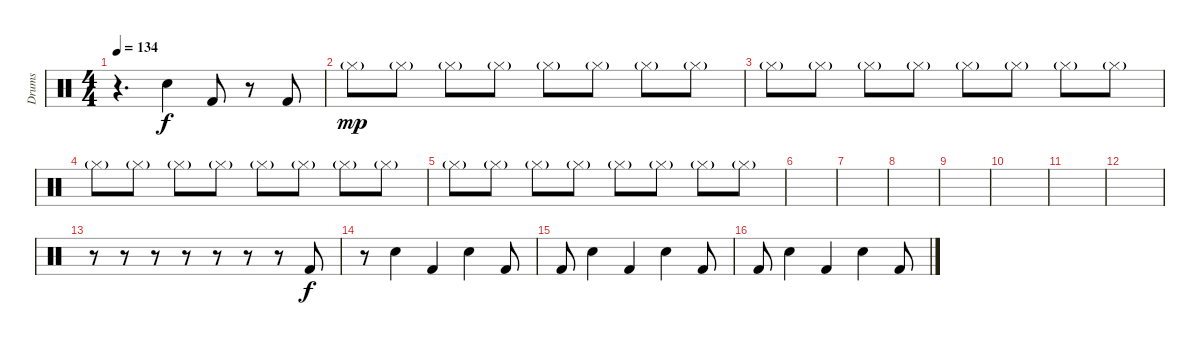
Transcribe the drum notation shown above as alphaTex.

\track ("Drums" "Drums") {instrument percussion}
\staff {score}
\articulation defaults
\ts (4 4)
\tempo 134
\clef neutral
\ks c
r.4{d dy f} "Electric Snare (hit)".4 "Kick (hit) 2".8 r.8 "Kick (hit) 2".8 |
"Hi-Hat (closed)"{g}.8{dy mp} "Hi-Hat (closed)"{g}.8 "Hi-Hat (closed)"{g}.8 "Hi-Hat (closed)"{g}.8 "Hi-Hat (closed)"{g}.8 "Hi-Hat (closed)"{g}.8 "Hi-Hat (closed)"{g}.8 "Hi-Hat (closed)"{g}.8 |
"Hi-Hat (closed)"{g}.8 "Hi-Hat (closed)"{g}.8 "Hi-Hat (closed)"{g}.8 "Hi-Hat (closed)"{g}.8 "Hi-Hat (closed)"{g}.8 "Hi-Hat (closed)"{g}.8 "Hi-Hat (closed)"{g}.8 "Hi-Hat (closed)"{g}.8 |
"Hi-Hat (closed)"{g}.8 "Hi-Hat (closed)"{g}.8 "Hi-Hat (closed)"{g}.8 "Hi-Hat (closed)"{g}.8 "Hi-Hat (closed)"{g}.8 "Hi-Hat (closed)"{g}.8 "Hi-Hat (closed)"{g}.8 "Hi-Hat (closed)"{g}.8 |
"Hi-Hat (closed)"{g}.8 "Hi-Hat (closed)"{g}.8 "Hi-Hat (closed)"{g}.8 "Hi-Hat (closed)"{g}.8 "Hi-Hat (closed)"{g}.8 "Hi-Hat (closed)"{g}.8 "Hi-Hat (closed)"{g}.8 "Hi-Hat (closed)"{g}.8 |
|
|
|
|
|
|
|
r.8 r.8 r.8 r.8 r.8 r.8 r.8 "Kick (hit) 2".8{dy f} |
r.8 "Electric Snare (hit)".4 "Kick (hit) 2".4 "Electric Snare (hit)".4 "Kick (hit) 2".8 |
"Kick (hit) 2".8 "Electric Snare (hit)".4 "Kick (hit) 2".4 "Electric Snare (hit)".4 "Kick (hit) 2".8 |
"Kick (hit) 2".8 "Electric Snare (hit)".4 "Kick (hit) 2".4 "Electric Snare (hit)".4 "Kick (hit) 2".8
